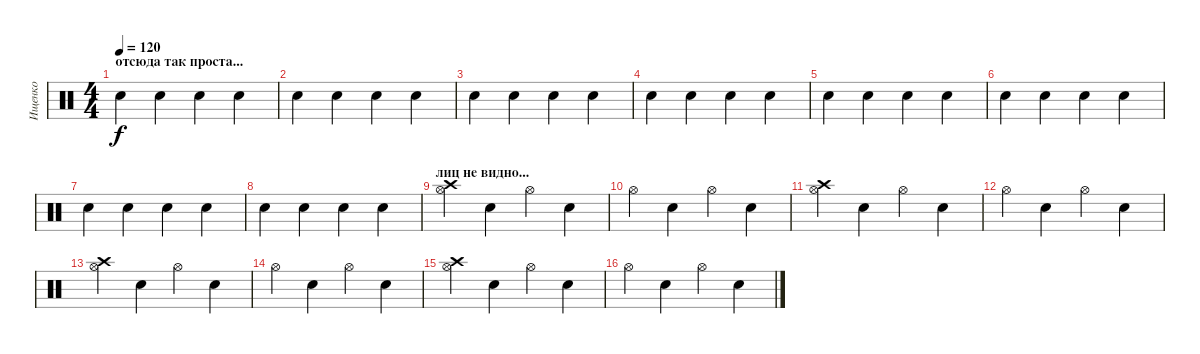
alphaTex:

\track ("Ищенко" "Ищенко") {instrument percussion}
\staff {score}
\articulation defaults
\ts (4 4)
\section ("" "отсюда так проста...")
\tempo 120
\clef neutral
\ks c "Snare (hit) 2".4{dy f} "Electric Snare (hit)".4 "Snare (hit) 2".4 "Electric Snare (hit)".4
|
"Snare (hit) 2".4 "Electric Snare (hit)".4 "Snare (hit) 2".4 "Electric Snare (hit)".4 |
"Snare (hit) 2".4 "Electric Snare (hit)".4 "Snare (hit) 2".4 "Electric Snare (hit)".4 |
"Snare (hit) 2".4 "Electric Snare (hit)".4 "Snare (hit) 2".4 "Electric Snare (hit)".4 |
"Snare (hit) 2".4 "Electric Snare (hit)".4 "Snare (hit) 2".4 "Electric Snare (hit)".4 |
"Snare (hit) 2".4 "Electric Snare (hit)".4 "Snare (hit) 2".4 "Electric Snare (hit)".4 |
"Snare (hit) 2".4 "Electric Snare (hit)".4 "Snare (hit) 2".4 "Electric Snare (hit)".4 |
"Snare (hit) 2".4 "Electric Snare (hit)".4 "Snare (hit) 2".4 "Electric Snare (hit)".4 |
\section ("" "лиц не видно...")
("Hi-Hat (open)" "Crash high (hit)").4 "Electric Snare (hit)".4 "Hi-Hat (open)".4 "Electric Snare (hit)".4 |
"Hi-Hat (open)".4 "Electric Snare (hit)".4 "Hi-Hat (open)".4 "Electric Snare (hit)".4 |
("Hi-Hat (open)" "Crash high (hit)").4 "Electric Snare (hit)".4 "Hi-Hat (open)".4 "Electric Snare (hit)".4 |
"Hi-Hat (open)".4 "Electric Snare (hit)".4 "Hi-Hat (open)".4 "Electric Snare (hit)".4 |
("Hi-Hat (open)" "Crash high (hit)").4 "Electric Snare (hit)".4 "Hi-Hat (open)".4 "Electric Snare (hit)".4 |
"Hi-Hat (open)".4 "Electric Snare (hit)".4 "Hi-Hat (open)".4 "Electric Snare (hit)".4 |
("Hi-Hat (open)" "Crash high (hit)").4 "Electric Snare (hit)".4 "Hi-Hat (open)".4 "Electric Snare (hit)".4 |
"Hi-Hat (open)".4 "Electric Snare (hit)".4 "Hi-Hat (open)".4 "Electric Snare (hit)".4
